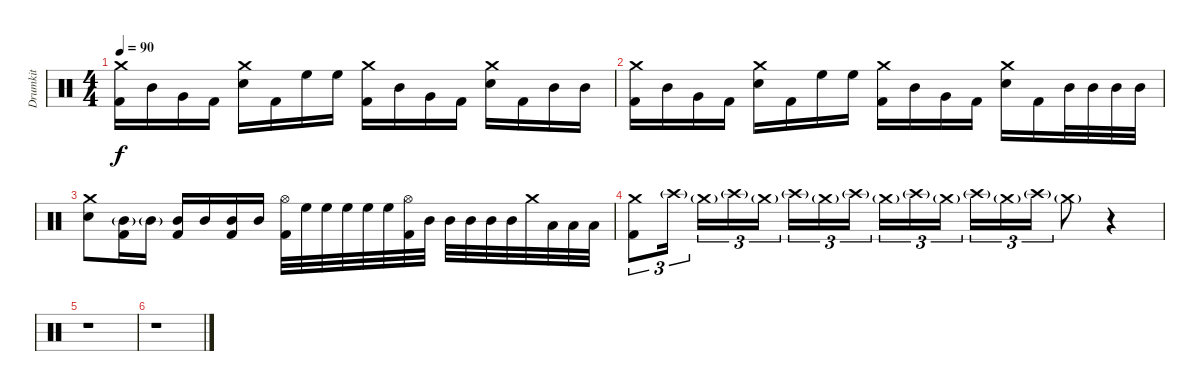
\track ("Drumkit" "Drumkit") {instrument percussion}
\staff {score}
\articulation defaults
\ts (4 4)
\tempo 90
\clef neutral
\ks c
("Crash medium (hit)" "Kick (hit) 2").16{dy f} "Mid Tom (hit)".16 "Very Low Tom (hit)".16 "Kick (hit) 2".16 ("Crash medium (hit)" "Snare (hit) 2").16 "Kick (hit) 2".16 "High Floor Tom (hit)".16 "High Floor Tom (hit)".16 ("Crash medium (hit)" "Kick (hit) 2").16 "Mid Tom (hit)".16 "Very Low Tom (hit)".16 "Kick (hit) 2".16 ("Crash medium (hit)" "Snare (hit) 2").16 "Kick (hit) 2".16 "Mid Tom (hit)".16 "Mid Tom (hit)".16 |
("Crash medium (hit)" "Kick (hit) 2").16 "Mid Tom (hit)".16 "Very Low Tom (hit)".16 "Kick (hit) 2".16 ("Crash medium (hit)" "Snare (hit) 2").16 "Kick (hit) 2".16 "High Floor Tom (hit)".16 "High Floor Tom (hit)".16 ("Crash medium (hit)" "Kick (hit) 2").16 "Mid Tom (hit)".16 "Very Low Tom (hit)".16 "Kick (hit) 2".16 ("Crash medium (hit)" "Snare (hit) 2").16 "Kick (hit) 2".16 "Mid Tom (hit)".32 "Mid Tom (hit)".32 "Mid Tom (hit)".32 "Mid Tom (hit)".32 |
("Crash medium (hit)" "Snare (hit) 2").8 ("Mid Tom (hit)"{g} "Kick (hit) 2").16 "Mid Tom (hit)"{g}.16 ("Mid Tom (hit)" "Kick (hit) 2").16 "Mid Tom (hit)".16 ("Mid Tom (hit)" "Kick (hit) 2").16 "Mid Tom (hit)".16 ("Hi-Hat (open)" "Kick (hit) 2").32 "High Floor Tom (hit)".32 "High Floor Tom (hit)".32 "High Floor Tom (hit)".32 "High Floor Tom (hit)".32 "High Floor Tom (hit)".32 ("Hi-Hat (open)" "Kick (hit) 2").32 "Mid Tom (hit)".32 "Mid Tom (hit)".32 "Mid Tom (hit)".32 "Mid Tom (hit)".32 "Mid Tom (hit)".32 "Crash medium (hit)".32 "Low Tom (hit)".32 "Low Tom (hit)".32 "Low Tom (hit)".32 |
("Crash medium (hit)" "Kick (hit) 2").8{tu (3 2)} "Crash high (hit)"{g}.16{tu (3 2)} "Crash medium (hit)"{g}.16{tu (3 2)} "Crash high (hit)"{g}.16{tu (3 2)} "Crash medium (hit)"{g}.16{tu (3 2)} "Crash high (hit)"{g}.16{tu (3 2)} "Crash medium (hit)"{g}.16{tu (3 2)} "Crash high (hit)"{g}.16{tu (3 2)} "Crash medium (hit)"{g}.16{tu (3 2)} "Crash high (hit)"{g}.16{tu (3 2)} "Crash medium (hit)"{g}.16{tu (3 2)} "Crash high (hit)"{g}.16{tu (3 2)} "Crash medium (hit)"{g}.16{tu (3 2)} "Crash high (hit)"{g}.16{tu (3 2)} "Crash medium (hit)"{g}.8 r.4 |
r.1 |
r.1
